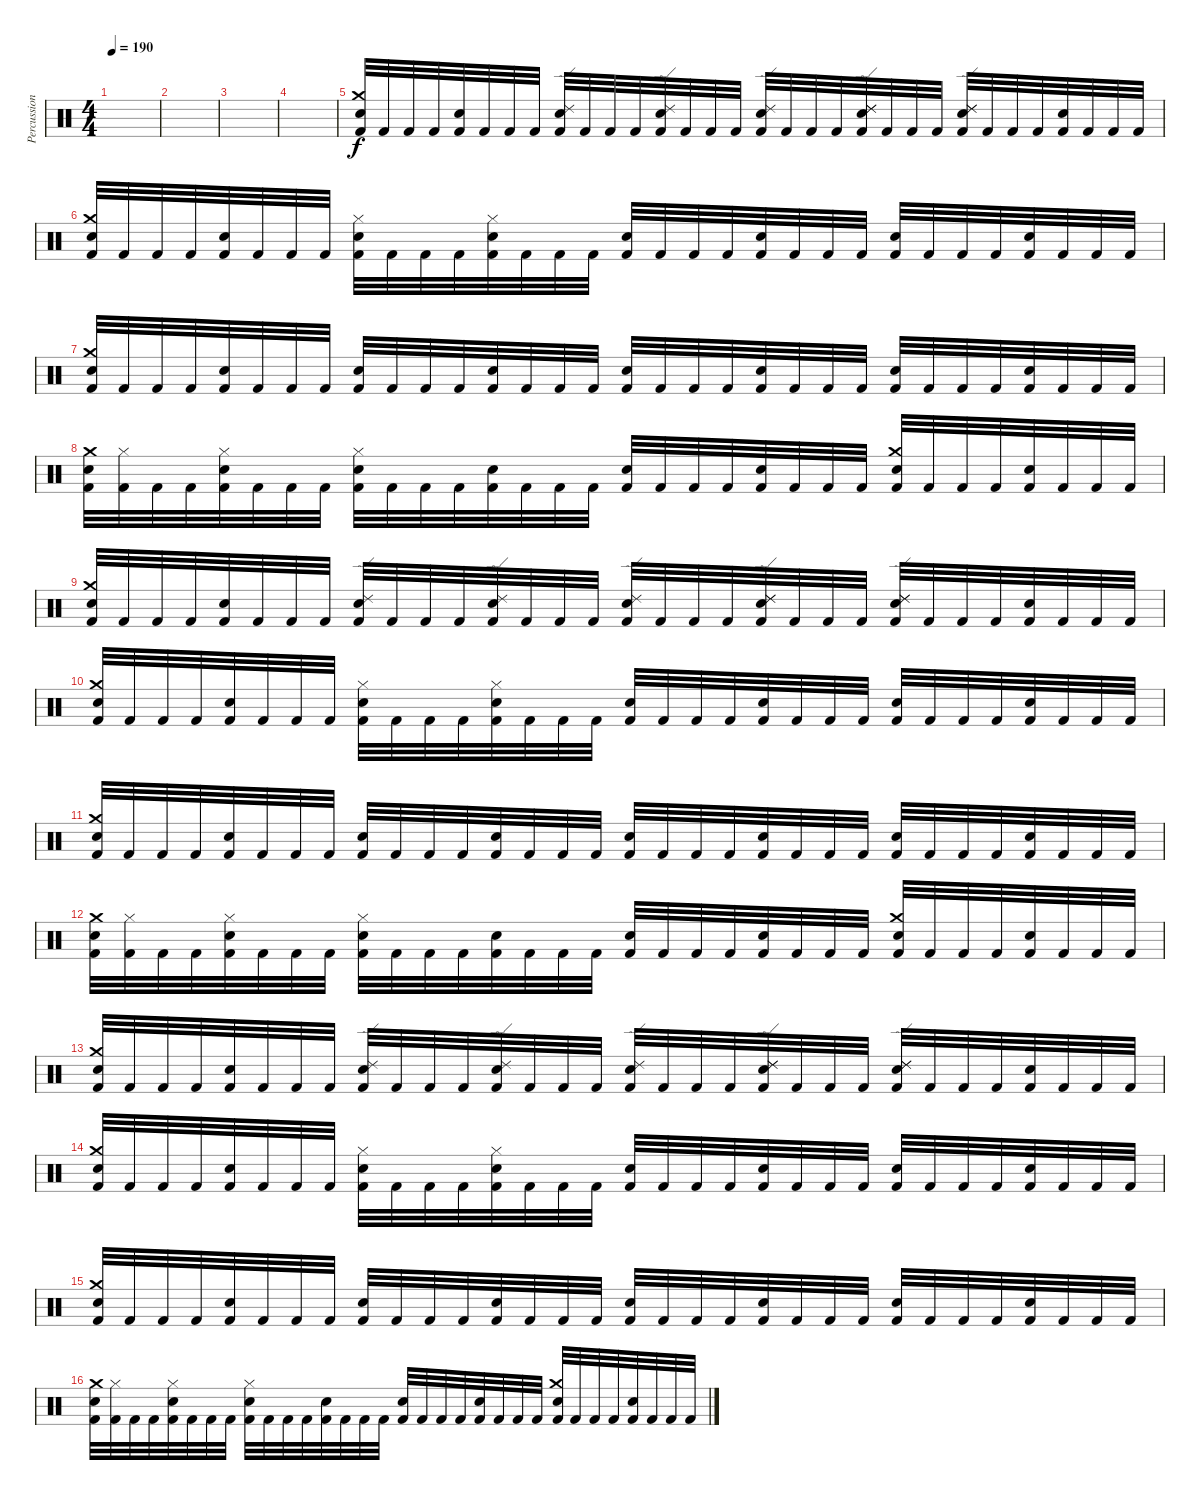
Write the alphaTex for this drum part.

\track ("Percussion" "Percussion") {instrument percussion}
\staff {score}
\articulation defaults
\ts (4 4)
\tempo 190
\clef neutral
\ks c
|
|
|
|
("Kick (hit) 2" "Crash medium (hit)" "Snare (hit) 2").32 "Kick (hit) 2".32 "Kick (hit) 2".32 "Kick (hit) 2".32 ("Kick (hit) 2" "Snare (hit) 2").32 "Kick (hit) 2".32 "Kick (hit) 2".32 "Kick (hit) 2".32 ("Kick (hit) 2" "Ride (edge) 2" "Snare (hit) 2").32 "Kick (hit) 2".32 "Kick (hit) 2".32 "Kick (hit) 2".32 ("Kick (hit) 2" "Ride (edge) 2" "Snare (hit) 2").32 "Kick (hit) 2".32 "Kick (hit) 2".32 "Kick (hit) 2".32 ("Kick (hit) 2" "Ride (edge) 2" "Snare (hit) 2").32 "Kick (hit) 2".32 "Kick (hit) 2".32 "Kick (hit) 2".32 ("Kick (hit) 2" "Ride (edge) 2" "Ride (edge) 2" "Snare (hit) 2").32 "Kick (hit) 2".32 "Kick (hit) 2".32 "Kick (hit) 2".32 ("Kick (hit) 2" "Ride (edge) 2" "Ride (edge) 2" "Snare (hit) 2").32 "Kick (hit) 2".32 "Kick (hit) 2".32 "Kick (hit) 2".32 ("Kick (hit) 2" "Snare (hit) 2").32 "Kick (hit) 2".32 "Kick (hit) 2".32 "Kick (hit) 2".32 |
("Kick (hit) 2" "Crash medium (hit)" "Snare (hit) 2").32 "Kick (hit) 2".32 "Kick (hit) 2".32 "Kick (hit) 2".32 ("Kick (hit) 2" "Snare (hit) 2").32 "Kick (hit) 2".32 "Kick (hit) 2".32 "Kick (hit) 2".32 ("Kick (hit) 2" "Hi-Hat (closed)" "Snare (hit) 2").32 "Kick (hit) 2".32 "Kick (hit) 2".32 "Kick (hit) 2".32 ("Kick (hit) 2" "Hi-Hat (closed)" "Snare (hit) 2").32 "Kick (hit) 2".32 "Kick (hit) 2".32 "Kick (hit) 2".32 ("Kick (hit) 2" "Snare (hit) 2").32 "Kick (hit) 2".32 "Kick (hit) 2".32 "Kick (hit) 2".32 ("Kick (hit) 2" "Snare (hit) 2").32 "Kick (hit) 2".32 "Kick (hit) 2".32 "Kick (hit) 2".32 ("Kick (hit) 2" "Snare (hit) 2").32 "Kick (hit) 2".32 "Kick (hit) 2".32 "Kick (hit) 2".32 ("Kick (hit) 2" "Snare (hit) 2").32 "Kick (hit) 2".32 "Kick (hit) 2".32 "Kick (hit) 2".32 |
("Kick (hit) 2" "Crash medium (hit)" "Snare (hit) 2").32 "Kick (hit) 2".32 "Kick (hit) 2".32 "Kick (hit) 2".32 ("Kick (hit) 2" "Snare (hit) 2").32 "Kick (hit) 2".32 "Kick (hit) 2".32 "Kick (hit) 2".32 ("Kick (hit) 2" "Snare (hit) 2").32 "Kick (hit) 2".32 "Kick (hit) 2".32 "Kick (hit) 2".32 ("Kick (hit) 2" "Snare (hit) 2").32 "Kick (hit) 2".32 "Kick (hit) 2".32 "Kick (hit) 2".32 ("Kick (hit) 2" "Snare (hit) 2").32 "Kick (hit) 2".32 "Kick (hit) 2".32 "Kick (hit) 2".32 ("Kick (hit) 2" "Snare (hit) 2").32 "Kick (hit) 2".32 "Kick (hit) 2".32 "Kick (hit) 2".32 ("Kick (hit) 2" "Snare (hit) 2").32 "Kick (hit) 2".32 "Kick (hit) 2".32 "Kick (hit) 2".32 ("Kick (hit) 2" "Snare (hit) 2").32 "Kick (hit) 2".32 "Kick (hit) 2".32 "Kick (hit) 2".32 |
("Kick (hit) 2" "Crash medium (hit)" "Snare (hit) 2").32 ("Kick (hit) 2" "Hi-Hat (closed)").32 "Kick (hit) 2".32 "Kick (hit) 2".32 ("Kick (hit) 2" "Hi-Hat (closed)" "Snare (hit) 2").32 "Kick (hit) 2".32 "Kick (hit) 2".32 "Kick (hit) 2".32 ("Kick (hit) 2" "Hi-Hat (closed)" "Snare (hit) 2").32 "Kick (hit) 2".32 "Kick (hit) 2".32 "Kick (hit) 2".32 ("Kick (hit) 2" "Snare (hit) 2").32 "Kick (hit) 2".32 "Kick (hit) 2".32 "Kick (hit) 2".32 ("Kick (hit) 2" "Snare (hit) 2").32 "Kick (hit) 2".32 "Kick (hit) 2".32 "Kick (hit) 2".32 ("Kick (hit) 2" "Snare (hit) 2").32 "Kick (hit) 2".32 "Kick (hit) 2".32 "Kick (hit) 2".32 ("Kick (hit) 2" "Crash medium (hit)" "Snare (hit) 2").32 "Kick (hit) 2".32 "Kick (hit) 2".32 "Kick (hit) 2".32 ("Kick (hit) 2" "Snare (hit) 2").32 "Kick (hit) 2".32 "Kick (hit) 2".32 "Kick (hit) 2".32 |
("Kick (hit) 2" "Crash medium (hit)" "Snare (hit) 2").32 "Kick (hit) 2".32 "Kick (hit) 2".32 "Kick (hit) 2".32 ("Kick (hit) 2" "Snare (hit) 2").32 "Kick (hit) 2".32 "Kick (hit) 2".32 "Kick (hit) 2".32 ("Kick (hit) 2" "Ride (edge) 2" "Snare (hit) 2").32 "Kick (hit) 2".32 "Kick (hit) 2".32 "Kick (hit) 2".32 ("Kick (hit) 2" "Ride (edge) 2" "Snare (hit) 2").32 "Kick (hit) 2".32 "Kick (hit) 2".32 "Kick (hit) 2".32 ("Kick (hit) 2" "Ride (edge) 2" "Snare (hit) 2").32 "Kick (hit) 2".32 "Kick (hit) 2".32 "Kick (hit) 2".32 ("Kick (hit) 2" "Ride (edge) 2" "Ride (edge) 2" "Snare (hit) 2").32 "Kick (hit) 2".32 "Kick (hit) 2".32 "Kick (hit) 2".32 ("Kick (hit) 2" "Ride (edge) 2" "Ride (edge) 2" "Snare (hit) 2").32 "Kick (hit) 2".32 "Kick (hit) 2".32 "Kick (hit) 2".32 ("Kick (hit) 2" "Snare (hit) 2").32 "Kick (hit) 2".32 "Kick (hit) 2".32 "Kick (hit) 2".32 |
("Kick (hit) 2" "Crash medium (hit)" "Snare (hit) 2").32 "Kick (hit) 2".32 "Kick (hit) 2".32 "Kick (hit) 2".32 ("Kick (hit) 2" "Snare (hit) 2").32 "Kick (hit) 2".32 "Kick (hit) 2".32 "Kick (hit) 2".32 ("Kick (hit) 2" "Hi-Hat (closed)" "Snare (hit) 2").32 "Kick (hit) 2".32 "Kick (hit) 2".32 "Kick (hit) 2".32 ("Kick (hit) 2" "Hi-Hat (closed)" "Snare (hit) 2").32 "Kick (hit) 2".32 "Kick (hit) 2".32 "Kick (hit) 2".32 ("Kick (hit) 2" "Snare (hit) 2").32 "Kick (hit) 2".32 "Kick (hit) 2".32 "Kick (hit) 2".32 ("Kick (hit) 2" "Snare (hit) 2").32 "Kick (hit) 2".32 "Kick (hit) 2".32 "Kick (hit) 2".32 ("Kick (hit) 2" "Snare (hit) 2").32 "Kick (hit) 2".32 "Kick (hit) 2".32 "Kick (hit) 2".32 ("Kick (hit) 2" "Snare (hit) 2").32 "Kick (hit) 2".32 "Kick (hit) 2".32 "Kick (hit) 2".32 |
("Kick (hit) 2" "Crash medium (hit)" "Snare (hit) 2").32 "Kick (hit) 2".32 "Kick (hit) 2".32 "Kick (hit) 2".32 ("Kick (hit) 2" "Snare (hit) 2").32 "Kick (hit) 2".32 "Kick (hit) 2".32 "Kick (hit) 2".32 ("Kick (hit) 2" "Snare (hit) 2").32 "Kick (hit) 2".32 "Kick (hit) 2".32 "Kick (hit) 2".32 ("Kick (hit) 2" "Snare (hit) 2").32 "Kick (hit) 2".32 "Kick (hit) 2".32 "Kick (hit) 2".32 ("Kick (hit) 2" "Snare (hit) 2").32 "Kick (hit) 2".32 "Kick (hit) 2".32 "Kick (hit) 2".32 ("Kick (hit) 2" "Snare (hit) 2").32 "Kick (hit) 2".32 "Kick (hit) 2".32 "Kick (hit) 2".32 ("Kick (hit) 2" "Snare (hit) 2").32 "Kick (hit) 2".32 "Kick (hit) 2".32 "Kick (hit) 2".32 ("Kick (hit) 2" "Snare (hit) 2").32 "Kick (hit) 2".32 "Kick (hit) 2".32 "Kick (hit) 2".32 |
("Kick (hit) 2" "Crash medium (hit)" "Snare (hit) 2").32 ("Kick (hit) 2" "Hi-Hat (closed)").32 "Kick (hit) 2".32 "Kick (hit) 2".32 ("Kick (hit) 2" "Hi-Hat (closed)" "Snare (hit) 2").32 "Kick (hit) 2".32 "Kick (hit) 2".32 "Kick (hit) 2".32 ("Kick (hit) 2" "Hi-Hat (closed)" "Snare (hit) 2").32 "Kick (hit) 2".32 "Kick (hit) 2".32 "Kick (hit) 2".32 ("Kick (hit) 2" "Snare (hit) 2").32 "Kick (hit) 2".32 "Kick (hit) 2".32 "Kick (hit) 2".32 ("Kick (hit) 2" "Snare (hit) 2").32 "Kick (hit) 2".32 "Kick (hit) 2".32 "Kick (hit) 2".32 ("Kick (hit) 2" "Snare (hit) 2").32 "Kick (hit) 2".32 "Kick (hit) 2".32 "Kick (hit) 2".32 ("Kick (hit) 2" "Crash medium (hit)" "Snare (hit) 2").32 "Kick (hit) 2".32 "Kick (hit) 2".32 "Kick (hit) 2".32 ("Kick (hit) 2" "Snare (hit) 2").32 "Kick (hit) 2".32 "Kick (hit) 2".32 "Kick (hit) 2".32 |
("Kick (hit) 2" "Crash medium (hit)" "Snare (hit) 2").32 "Kick (hit) 2".32 "Kick (hit) 2".32 "Kick (hit) 2".32 ("Kick (hit) 2" "Snare (hit) 2").32 "Kick (hit) 2".32 "Kick (hit) 2".32 "Kick (hit) 2".32 ("Kick (hit) 2" "Ride (edge) 2" "Snare (hit) 2").32 "Kick (hit) 2".32 "Kick (hit) 2".32 "Kick (hit) 2".32 ("Kick (hit) 2" "Ride (edge) 2" "Snare (hit) 2").32 "Kick (hit) 2".32 "Kick (hit) 2".32 "Kick (hit) 2".32 ("Kick (hit) 2" "Ride (edge) 2" "Snare (hit) 2").32 "Kick (hit) 2".32 "Kick (hit) 2".32 "Kick (hit) 2".32 ("Kick (hit) 2" "Ride (edge) 2" "Ride (edge) 2" "Snare (hit) 2").32 "Kick (hit) 2".32 "Kick (hit) 2".32 "Kick (hit) 2".32 ("Kick (hit) 2" "Ride (edge) 2" "Ride (edge) 2" "Snare (hit) 2").32 "Kick (hit) 2".32 "Kick (hit) 2".32 "Kick (hit) 2".32 ("Kick (hit) 2" "Snare (hit) 2").32 "Kick (hit) 2".32 "Kick (hit) 2".32 "Kick (hit) 2".32 |
("Kick (hit) 2" "Crash medium (hit)" "Snare (hit) 2").32 "Kick (hit) 2".32 "Kick (hit) 2".32 "Kick (hit) 2".32 ("Kick (hit) 2" "Snare (hit) 2").32 "Kick (hit) 2".32 "Kick (hit) 2".32 "Kick (hit) 2".32 ("Kick (hit) 2" "Hi-Hat (closed)" "Snare (hit) 2").32 "Kick (hit) 2".32 "Kick (hit) 2".32 "Kick (hit) 2".32 ("Kick (hit) 2" "Hi-Hat (closed)" "Snare (hit) 2").32 "Kick (hit) 2".32 "Kick (hit) 2".32 "Kick (hit) 2".32 ("Kick (hit) 2" "Snare (hit) 2").32 "Kick (hit) 2".32 "Kick (hit) 2".32 "Kick (hit) 2".32 ("Kick (hit) 2" "Snare (hit) 2").32 "Kick (hit) 2".32 "Kick (hit) 2".32 "Kick (hit) 2".32 ("Kick (hit) 2" "Snare (hit) 2").32 "Kick (hit) 2".32 "Kick (hit) 2".32 "Kick (hit) 2".32 ("Kick (hit) 2" "Snare (hit) 2").32 "Kick (hit) 2".32 "Kick (hit) 2".32 "Kick (hit) 2".32 |
("Kick (hit) 2" "Crash medium (hit)" "Snare (hit) 2").32 "Kick (hit) 2".32 "Kick (hit) 2".32 "Kick (hit) 2".32 ("Kick (hit) 2" "Snare (hit) 2").32 "Kick (hit) 2".32 "Kick (hit) 2".32 "Kick (hit) 2".32 ("Kick (hit) 2" "Snare (hit) 2").32 "Kick (hit) 2".32 "Kick (hit) 2".32 "Kick (hit) 2".32 ("Kick (hit) 2" "Snare (hit) 2").32 "Kick (hit) 2".32 "Kick (hit) 2".32 "Kick (hit) 2".32 ("Kick (hit) 2" "Snare (hit) 2").32 "Kick (hit) 2".32 "Kick (hit) 2".32 "Kick (hit) 2".32 ("Kick (hit) 2" "Snare (hit) 2").32 "Kick (hit) 2".32 "Kick (hit) 2".32 "Kick (hit) 2".32 ("Kick (hit) 2" "Snare (hit) 2").32 "Kick (hit) 2".32 "Kick (hit) 2".32 "Kick (hit) 2".32 ("Kick (hit) 2" "Snare (hit) 2").32 "Kick (hit) 2".32 "Kick (hit) 2".32 "Kick (hit) 2".32 |
("Kick (hit) 2" "Crash medium (hit)" "Snare (hit) 2").32 ("Kick (hit) 2" "Hi-Hat (closed)").32 "Kick (hit) 2".32 "Kick (hit) 2".32 ("Kick (hit) 2" "Hi-Hat (closed)" "Snare (hit) 2").32 "Kick (hit) 2".32 "Kick (hit) 2".32 "Kick (hit) 2".32 ("Kick (hit) 2" "Hi-Hat (closed)" "Snare (hit) 2").32 "Kick (hit) 2".32 "Kick (hit) 2".32 "Kick (hit) 2".32 ("Kick (hit) 2" "Snare (hit) 2").32 "Kick (hit) 2".32 "Kick (hit) 2".32 "Kick (hit) 2".32 ("Kick (hit) 2" "Snare (hit) 2").32 "Kick (hit) 2".32 "Kick (hit) 2".32 "Kick (hit) 2".32 ("Kick (hit) 2" "Snare (hit) 2").32 "Kick (hit) 2".32 "Kick (hit) 2".32 "Kick (hit) 2".32 ("Kick (hit) 2" "Crash medium (hit)" "Snare (hit) 2").32 "Kick (hit) 2".32 "Kick (hit) 2".32 "Kick (hit) 2".32 ("Kick (hit) 2" "Snare (hit) 2").32 "Kick (hit) 2".32 "Kick (hit) 2".32 "Kick (hit) 2".32
